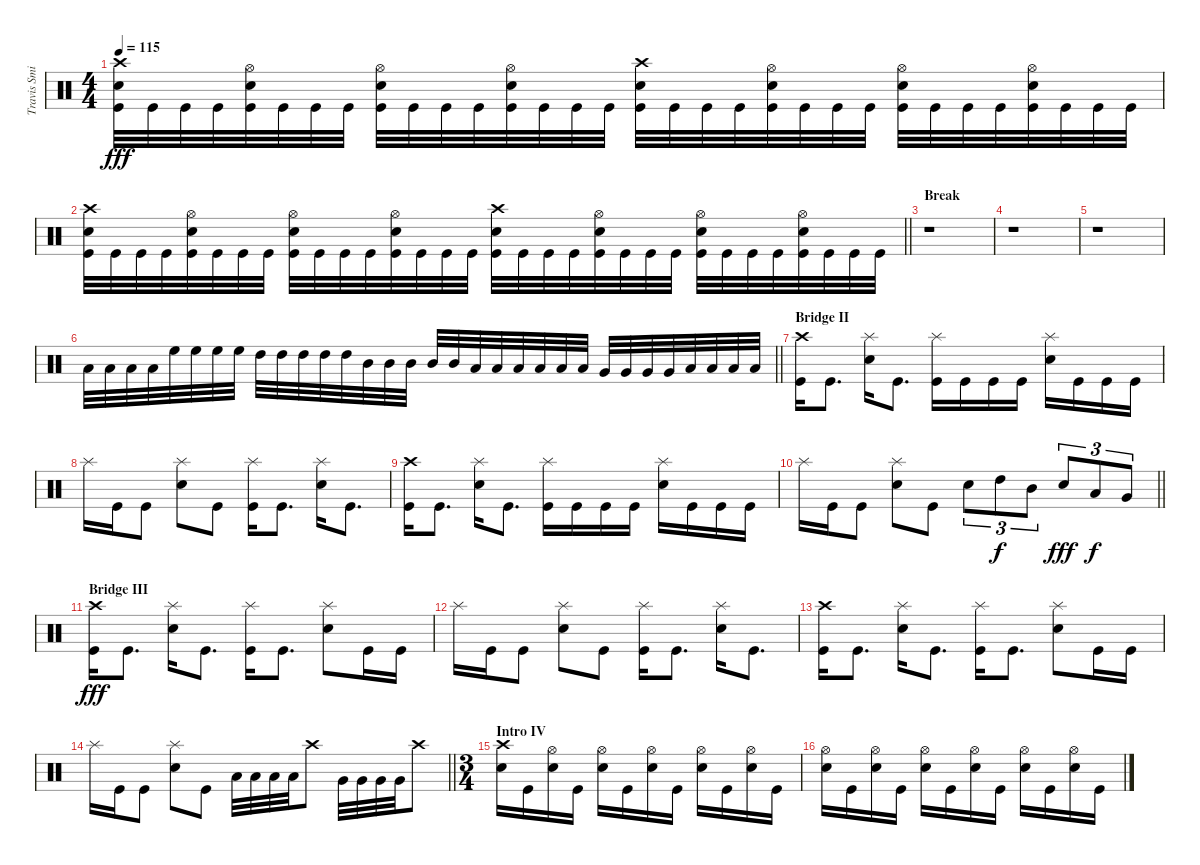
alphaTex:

\track ("Travis Smith" "Travis Smi") {instrument percussion}
\staff {score}
\articulation defaults
\ts (4 4)
\tempo 115
\clef neutral
\ks c
("Crash high (hit)" "Snare (hit) 2" "Kick (hit)").32{dy fff} "Kick (hit)".32 "Kick (hit)".32 "Kick (hit)".32 ("Hi-Hat (open)" "Snare (hit) 2" "Kick (hit)").32 "Kick (hit)".32 "Kick (hit)".32 "Kick (hit)".32 ("Hi-Hat (open)" "Snare (hit) 2" "Kick (hit)").32 "Kick (hit)".32 "Kick (hit)".32 "Kick (hit)".32 ("Hi-Hat (open)" "Snare (hit) 2" "Kick (hit)").32 "Kick (hit)".32 "Kick (hit)".32 "Kick (hit)".32 ("Crash high (hit)" "Snare (hit) 2" "Kick (hit)").32 "Kick (hit)".32 "Kick (hit)".32 "Kick (hit)".32 ("Hi-Hat (open)" "Snare (hit) 2" "Kick (hit)").32 "Kick (hit)".32 "Kick (hit)".32 "Kick (hit)".32 ("Hi-Hat (open)" "Snare (hit) 2" "Kick (hit)").32 "Kick (hit)".32 "Kick (hit)".32 "Kick (hit)".32 ("Hi-Hat (open)" "Snare (hit) 2" "Kick (hit)").32 "Kick (hit)".32 "Kick (hit)".32 "Kick (hit)".32 |
\barLineRight lightlight
("Crash high (hit)" "Snare (hit) 2" "Kick (hit)").32 "Kick (hit)".32 "Kick (hit)".32 "Kick (hit)".32 ("Hi-Hat (open)" "Snare (hit) 2" "Kick (hit)").32 "Kick (hit)".32 "Kick (hit)".32 "Kick (hit)".32 ("Hi-Hat (open)" "Snare (hit) 2" "Kick (hit)").32 "Kick (hit)".32 "Kick (hit)".32 "Kick (hit)".32 ("Hi-Hat (open)" "Snare (hit) 2" "Kick (hit)").32 "Kick (hit)".32 "Kick (hit)".32 "Kick (hit)".32 ("Crash high (hit)" "Snare (hit) 2" "Kick (hit)").32 "Kick (hit)".32 "Kick (hit)".32 "Kick (hit)".32 ("Hi-Hat (open)" "Snare (hit) 2" "Kick (hit)").32 "Kick (hit)".32 "Kick (hit)".32 "Kick (hit)".32 ("Hi-Hat (open)" "Snare (hit) 2" "Kick (hit)").32 "Kick (hit)".32 "Kick (hit)".32 "Kick (hit)".32 ("Hi-Hat (open)" "Snare (hit) 2" "Kick (hit)").32 "Kick (hit)".32 "Kick (hit)".32 "Kick (hit)".32 |
\section ("" "Break")
r.1 |
r.1 |
r.1 |
\barLineRight lightlight "Low Floor Tom (hit)".32 "Low Floor Tom (hit)".32 "Low Floor Tom (hit)".32 "Low Floor Tom (hit)".32 "High Floor Tom (hit)".32 "High Floor Tom (hit)".32 "High Floor Tom (hit)".32 "High Floor Tom (hit)".32 "High Tom (hit)".32 "High Tom (hit)".32 "High Tom (hit)".32 "High Tom (hit)".32 "High Tom (hit)".32 "Mid Tom (hit)".32 "Mid Tom (hit)".32 "Mid Tom (hit)".32 "Mid Tom (hit)".32 "Mid Tom (hit)".32 "Low Tom (hit)".32 "Low Tom (hit)".32 "Low Tom (hit)".32 "Low Tom (hit)".32 "Low Tom (hit)".32 "Low Tom (hit)".32 "Very Low Tom (hit)".32 "Very Low Tom (hit)".32 "Very Low Tom (hit)".32 "Very Low Tom (hit)".32 "Low Floor Tom (hit)".32 "Low Floor Tom (hit)".32 "Low Floor Tom (hit)".32 "Low Floor Tom (hit)".32
|
\section ("" "Bridge II")
("Crash high (hit)" "Kick (hit)").16 "Kick (hit)".8{d} ("Splash (hit)" "Snare (hit) 2").16 "Kick (hit)".8{d} ("Splash (hit)" "Kick (hit)").16 "Kick (hit)".16 "Kick (hit)".16 "Kick (hit)".16 ("Splash (hit)" "Snare (hit) 2").16 "Kick (hit)".16 "Kick (hit)".16 "Kick (hit)".16 |
"Splash (hit)".16 "Kick (hit)".16 "Kick (hit)".8 ("Splash (hit)" "Snare (hit) 2").8 "Kick (hit)".8 ("Splash (hit)" "Kick (hit)").16 "Kick (hit)".8{d} ("Splash (hit)" "Snare (hit) 2").16 "Kick (hit)".8{d} |
("Crash high (hit)" "Kick (hit)").16 "Kick (hit)".8{d} ("Splash (hit)" "Snare (hit) 2").16 "Kick (hit)".8{d} ("Splash (hit)" "Kick (hit)").16 "Kick (hit)".16 "Kick (hit)".16 "Kick (hit)".16 ("Splash (hit)" "Snare (hit) 2").16 "Kick (hit)".16 "Kick (hit)".16 "Kick (hit)".16 |
\barLineRight lightlight "Splash (hit)".16 "Kick (hit)".16 "Kick (hit)".8
("Splash (hit)" "Snare (hit) 2").8 "Kick (hit)".8 "Snare (hit) 2".8{tu (3 2)} "High Tom (hit)".8{tu (3 2) dy f} "Mid Tom (hit)".8{tu (3 2)} "Snare (hit) 2".8{tu (3 2) dy fff} "Low Tom (hit)".8{tu (3 2) dy f} "Very Low Tom (hit)".8{tu (3 2)} |
\section ("" "Bridge III")
("Crash high (hit)" "Kick (hit)").16{dy fff} "Kick (hit)".8{d} ("Splash (hit)" "Snare (hit) 2").16 "Kick (hit)".8{d} ("Splash (hit)" "Kick (hit)").16 "Kick (hit)".8{d} ("Splash (hit)" "Snare (hit) 2").8 "Kick (hit)".16 "Kick (hit)".16 |
"Splash (hit)".16 "Kick (hit)".16 "Kick (hit)".8 ("Splash (hit)" "Snare (hit) 2").8 "Kick (hit)".8 ("Splash (hit)" "Kick (hit)").16 "Kick (hit)".8{d} ("Splash (hit)" "Snare (hit) 2").16 "Kick (hit)".8{d} |
("Crash high (hit)" "Kick (hit)").16 "Kick (hit)".8{d} ("Splash (hit)" "Snare (hit) 2").16 "Kick (hit)".8{d} ("Splash (hit)" "Kick (hit)").16 "Kick (hit)".8{d} ("Splash (hit)" "Snare (hit) 2").8 "Kick (hit)".16 "Kick (hit)".16 |
\barLineRight lightlight "Splash (hit)".16 "Kick (hit)".16 "Kick (hit)".8
("Splash (hit)" "Snare (hit) 2").8 "Kick (hit)".8 "Low Tom (hit)".32 "Low Tom (hit)".32 "Low Tom (hit)".32 "Low Tom (hit)".32 "Crash high (hit)".8 "Very Low Tom (hit)".32 "Very Low Tom (hit)".32 "Very Low Tom (hit)".32 "Very Low Tom (hit)".32 "Crash high (hit)".8 |
\ts (3 4)
\section ("" "Intro IV")
("Crash high (hit)" "Snare (hit) 2").16 "Kick (hit)".16 ("Hi-Hat (open)" "Snare (hit) 2").16 "Kick (hit)".16 ("Hi-Hat (open)" "Snare (hit) 2").16 "Kick (hit)".16 ("Hi-Hat (open)" "Snare (hit) 2").16 "Kick (hit)".16 ("Hi-Hat (open)" "Snare (hit) 2").16 "Kick (hit)".16 ("Hi-Hat (open)" "Snare (hit) 2").16 "Kick (hit)".16 |
("Hi-Hat (open)" "Snare (hit) 2").16 "Kick (hit)".16 ("Hi-Hat (open)" "Snare (hit) 2").16 "Kick (hit)".16 ("Hi-Hat (open)" "Snare (hit) 2").16 "Kick (hit)".16 ("Hi-Hat (open)" "Snare (hit) 2").16 "Kick (hit)".16 ("Hi-Hat (open)" "Snare (hit) 2").16 "Kick (hit)".16 ("Hi-Hat (open)" "Snare (hit) 2").16 "Kick (hit)".16
